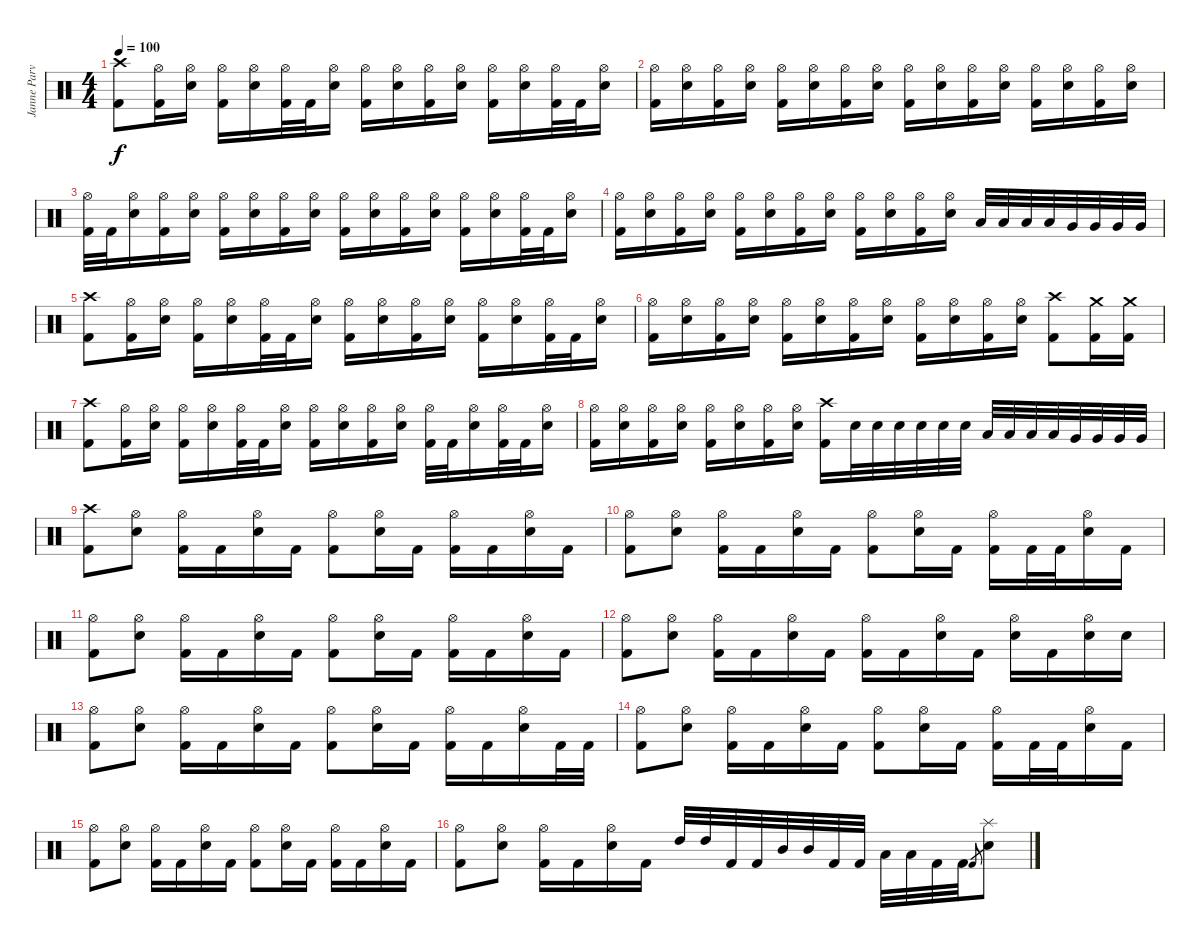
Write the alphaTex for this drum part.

\track ("Janne Parviainen" "Janne Parv") {instrument percussion}
\staff {score}
\articulation defaults
\ts (4 4)
\tempo 100
\clef neutral
\ks c
("Crash high (hit)" "Kick (hit) 2").8{dy f volume 13} ("Hi-Hat (open)" "Kick (hit) 2").16 ("Hi-Hat (open)" "Electric Snare (hit)").16 ("Hi-Hat (open)" "Kick (hit) 2").16 ("Hi-Hat (open)" "Electric Snare (hit)").16 ("Hi-Hat (open)" "Kick (hit) 2").32 "Kick (hit) 2".32 ("Hi-Hat (open)" "Electric Snare (hit)").16 ("Hi-Hat (open)" "Kick (hit) 2").16 ("Hi-Hat (open)" "Electric Snare (hit)").16 ("Hi-Hat (open)" "Kick (hit) 2").16 ("Hi-Hat (open)" "Electric Snare (hit)").16 ("Hi-Hat (open)" "Kick (hit) 2").16 ("Hi-Hat (open)" "Electric Snare (hit)").16 ("Hi-Hat (open)" "Kick (hit) 2").32 "Kick (hit) 2".32 ("Hi-Hat (open)" "Electric Snare (hit)").16 |
("Hi-Hat (open)" "Kick (hit) 2").16 ("Hi-Hat (open)" "Electric Snare (hit)").16 ("Hi-Hat (open)" "Kick (hit) 2").16 ("Hi-Hat (open)" "Electric Snare (hit)").16 ("Hi-Hat (open)" "Kick (hit) 2").16 ("Hi-Hat (open)" "Electric Snare (hit)").16 ("Hi-Hat (open)" "Kick (hit) 2").16 ("Hi-Hat (open)" "Electric Snare (hit)").16 ("Hi-Hat (open)" "Kick (hit) 2").16 ("Hi-Hat (open)" "Electric Snare (hit)").16 ("Hi-Hat (open)" "Kick (hit) 2").16 ("Hi-Hat (open)" "Electric Snare (hit)").16 ("Hi-Hat (open)" "Kick (hit) 2").16 ("Hi-Hat (open)" "Electric Snare (hit)").16 ("Hi-Hat (open)" "Kick (hit) 2").16 ("Hi-Hat (open)" "Electric Snare (hit)").16 |
("Hi-Hat (open)" "Kick (hit) 2").32 "Kick (hit) 2".32 ("Hi-Hat (open)" "Electric Snare (hit)").16 ("Hi-Hat (open)" "Kick (hit) 2").16 ("Hi-Hat (open)" "Electric Snare (hit)").16 ("Hi-Hat (open)" "Kick (hit) 2").16 ("Hi-Hat (open)" "Electric Snare (hit)").16 ("Hi-Hat (open)" "Kick (hit) 2").16 ("Hi-Hat (open)" "Electric Snare (hit)").16 ("Hi-Hat (open)" "Kick (hit) 2").16 ("Hi-Hat (open)" "Electric Snare (hit)").16 ("Hi-Hat (open)" "Kick (hit) 2").16 ("Hi-Hat (open)" "Electric Snare (hit)").16 ("Hi-Hat (open)" "Kick (hit) 2").16 ("Hi-Hat (open)" "Electric Snare (hit)").16 ("Hi-Hat (open)" "Kick (hit) 2").32 "Kick (hit) 2".32 ("Hi-Hat (open)" "Electric Snare (hit)").16 |
("Hi-Hat (open)" "Kick (hit) 2").16 ("Hi-Hat (open)" "Electric Snare (hit)").16 ("Hi-Hat (open)" "Kick (hit) 2").16 ("Hi-Hat (open)" "Electric Snare (hit)").16 ("Hi-Hat (open)" "Kick (hit) 2").16 ("Hi-Hat (open)" "Electric Snare (hit)").16 ("Hi-Hat (open)" "Kick (hit) 2").16 ("Hi-Hat (open)" "Electric Snare (hit)").16 ("Hi-Hat (open)" "Kick (hit) 2").16 ("Hi-Hat (open)" "Electric Snare (hit)").16 ("Hi-Hat (open)" "Kick (hit) 2").16 ("Hi-Hat (open)" "Electric Snare (hit)").16 "Low Tom (hit)".32 "Low Tom (hit)".32 "Low Tom (hit)".32 "Low Tom (hit)".32 "Very Low Tom (hit)".32 "Very Low Tom (hit)".32 "Very Low Tom (hit)".32 "Very Low Tom (hit)".32 |
("Crash high (hit)" "Kick (hit) 2").8 ("Hi-Hat (open)" "Kick (hit) 2").16 ("Hi-Hat (open)" "Electric Snare (hit)").16 ("Hi-Hat (open)" "Kick (hit) 2").16 ("Hi-Hat (open)" "Electric Snare (hit)").16 ("Hi-Hat (open)" "Kick (hit) 2").32 "Kick (hit) 2".32 ("Hi-Hat (open)" "Electric Snare (hit)").16 ("Hi-Hat (open)" "Kick (hit) 2").16 ("Hi-Hat (open)" "Electric Snare (hit)").16 ("Hi-Hat (open)" "Kick (hit) 2").16 ("Hi-Hat (open)" "Electric Snare (hit)").16 ("Hi-Hat (open)" "Kick (hit) 2").16 ("Hi-Hat (open)" "Electric Snare (hit)").16 ("Hi-Hat (open)" "Kick (hit) 2").32 "Kick (hit) 2".32 ("Hi-Hat (open)" "Electric Snare (hit)").16 |
("Hi-Hat (open)" "Kick (hit) 2").16 ("Hi-Hat (open)" "Electric Snare (hit)").16 ("Hi-Hat (open)" "Kick (hit) 2").16 ("Hi-Hat (open)" "Electric Snare (hit)").16 ("Hi-Hat (open)" "Kick (hit) 2").16 ("Hi-Hat (open)" "Electric Snare (hit)").16 ("Hi-Hat (open)" "Kick (hit) 2").16 ("Hi-Hat (open)" "Electric Snare (hit)").16 ("Hi-Hat (open)" "Kick (hit) 2").16 ("Hi-Hat (open)" "Electric Snare (hit)").16 ("Hi-Hat (open)" "Kick (hit) 2").16 ("Hi-Hat (open)" "Electric Snare (hit)").16 ("Crash high (hit)" "Kick (hit) 2").8 ("Crash medium (hit)" "Kick (hit) 2").16 ("Crash medium (hit)" "Kick (hit) 2").16 |
("Crash high (hit)" "Kick (hit) 2").8 ("Hi-Hat (open)" "Kick (hit) 2").16 ("Hi-Hat (open)" "Electric Snare (hit)").16 ("Hi-Hat (open)" "Kick (hit) 2").16 ("Hi-Hat (open)" "Electric Snare (hit)").16 ("Hi-Hat (open)" "Kick (hit) 2").32 "Kick (hit) 2".32 ("Hi-Hat (open)" "Electric Snare (hit)").16 ("Hi-Hat (open)" "Kick (hit) 2").16 ("Hi-Hat (open)" "Electric Snare (hit)").16 ("Hi-Hat (open)" "Kick (hit) 2").16 ("Hi-Hat (open)" "Electric Snare (hit)").16 ("Hi-Hat (open)" "Kick (hit) 2").32 "Kick (hit) 2".32 ("Hi-Hat (open)" "Electric Snare (hit)").16 ("Hi-Hat (open)" "Kick (hit) 2").32 "Kick (hit) 2".32 ("Hi-Hat (open)" "Electric Snare (hit)").16 |
("Hi-Hat (open)" "Kick (hit) 2").16 ("Hi-Hat (open)" "Electric Snare (hit)").16 ("Hi-Hat (open)" "Kick (hit) 2").16 ("Hi-Hat (open)" "Electric Snare (hit)").16 ("Hi-Hat (open)" "Kick (hit) 2").16 ("Hi-Hat (open)" "Electric Snare (hit)").16 ("Hi-Hat (open)" "Kick (hit) 2").16 ("Hi-Hat (open)" "Electric Snare (hit)").16 ("Crash high (hit)" "Kick (hit) 2").16 "Electric Snare (hit)".32 "Electric Snare (hit)".32 "Electric Snare (hit)".32 "Electric Snare (hit)".32 "Electric Snare (hit)".32 "Electric Snare (hit)".32 "Low Tom (hit)".32 "Low Tom (hit)".32 "Low Tom (hit)".32 "Low Tom (hit)".32 "Very Low Tom (hit)".32 "Very Low Tom (hit)".32 "Very Low Tom (hit)".32 "Very Low Tom (hit)".32 |
("Crash high (hit)" "Kick (hit) 2").8 ("Hi-Hat (open)" "Electric Snare (hit)").8 ("Hi-Hat (open)" "Kick (hit) 2").16 "Kick (hit) 2".16 ("Hi-Hat (open)" "Electric Snare (hit)").16 "Kick (hit) 2".16 ("Hi-Hat (open)" "Kick (hit) 2").8 ("Hi-Hat (open)" "Electric Snare (hit)").16 "Kick (hit) 2".16 ("Hi-Hat (open)" "Kick (hit) 2").16 "Kick (hit) 2".16 ("Hi-Hat (open)" "Electric Snare (hit)").16 "Kick (hit) 2".16 |
("Hi-Hat (open)" "Kick (hit) 2").8 ("Hi-Hat (open)" "Electric Snare (hit)").8 ("Hi-Hat (open)" "Kick (hit) 2").16 "Kick (hit) 2".16 ("Hi-Hat (open)" "Electric Snare (hit)").16 "Kick (hit) 2".16 ("Hi-Hat (open)" "Kick (hit) 2").8 ("Hi-Hat (open)" "Electric Snare (hit)").16 "Kick (hit) 2".16 ("Hi-Hat (open)" "Kick (hit) 2").16 "Kick (hit) 2".32 "Kick (hit) 2".32 ("Hi-Hat (open)" "Electric Snare (hit)").16 "Kick (hit) 2".16 |
("Hi-Hat (open)" "Kick (hit) 2").8 ("Hi-Hat (open)" "Electric Snare (hit)").8 ("Hi-Hat (open)" "Kick (hit) 2").16 "Kick (hit) 2".16 ("Hi-Hat (open)" "Electric Snare (hit)").16 "Kick (hit) 2".16 ("Hi-Hat (open)" "Kick (hit) 2").8 ("Hi-Hat (open)" "Electric Snare (hit)").16 "Kick (hit) 2".16 ("Hi-Hat (open)" "Kick (hit) 2").16 "Kick (hit) 2".16 ("Hi-Hat (open)" "Electric Snare (hit)").16 "Kick (hit) 2".16 |
("Hi-Hat (open)" "Kick (hit) 2").8 ("Hi-Hat (open)" "Electric Snare (hit)").8 ("Hi-Hat (open)" "Kick (hit) 2").16 "Kick (hit) 2".16 ("Hi-Hat (open)" "Electric Snare (hit)").16 "Kick (hit) 2".16 ("Hi-Hat (open)" "Kick (hit) 2").16 "Kick (hit) 2".16 ("Hi-Hat (open)" "Electric Snare (hit)").16 "Kick (hit) 2".16 ("Hi-Hat (open)" "Electric Snare (hit)").16 "Kick (hit) 2".16 ("Hi-Hat (open)" "Electric Snare (hit)").16 "Electric Snare (hit)".16 |
("Hi-Hat (open)" "Kick (hit) 2").8 ("Hi-Hat (open)" "Electric Snare (hit)").8 ("Hi-Hat (open)" "Kick (hit) 2").16 "Kick (hit) 2".16 ("Hi-Hat (open)" "Electric Snare (hit)").16 "Kick (hit) 2".16 ("Hi-Hat (open)" "Kick (hit) 2").8 ("Hi-Hat (open)" "Electric Snare (hit)").16 "Kick (hit) 2".16 ("Hi-Hat (open)" "Kick (hit) 2").16 "Kick (hit) 2".16 ("Hi-Hat (open)" "Electric Snare (hit)").16 "Kick (hit) 2".32 "Kick (hit) 2".32 |
("Hi-Hat (open)" "Kick (hit) 2").8 ("Hi-Hat (open)" "Electric Snare (hit)").8 ("Hi-Hat (open)" "Kick (hit) 2").16 "Kick (hit) 2".16 ("Hi-Hat (open)" "Electric Snare (hit)").16 "Kick (hit) 2".16 ("Hi-Hat (open)" "Kick (hit) 2").8 ("Hi-Hat (open)" "Electric Snare (hit)").16 "Kick (hit) 2".16 ("Hi-Hat (open)" "Kick (hit) 2").16 "Kick (hit) 2".32 "Kick (hit) 2".32 ("Hi-Hat (open)" "Electric Snare (hit)").16 "Kick (hit) 2".16 |
("Hi-Hat (open)" "Kick (hit) 2").8 ("Hi-Hat (open)" "Electric Snare (hit)").8 ("Hi-Hat (open)" "Kick (hit) 2").16 "Kick (hit) 2".16 ("Hi-Hat (open)" "Electric Snare (hit)").16 "Kick (hit) 2".16 ("Hi-Hat (open)" "Kick (hit) 2").8 ("Hi-Hat (open)" "Electric Snare (hit)").16 "Kick (hit) 2".16 ("Hi-Hat (open)" "Kick (hit) 2").16 "Kick (hit) 2".16 ("Hi-Hat (open)" "Electric Snare (hit)").16 "Kick (hit) 2".16 |
("Hi-Hat (open)" "Kick (hit) 2").8 ("Hi-Hat (open)" "Electric Snare (hit)").8 ("Hi-Hat (open)" "Kick (hit) 2").16 "Kick (hit) 2".16 ("Hi-Hat (open)" "Electric Snare (hit)").16 "Kick (hit) 2".16 "High Tom (hit)".32 "High Tom (hit)".32 "Kick (hit) 2".32 "Kick (hit) 2".32 "Mid Tom (hit)".32 "Mid Tom (hit)".32 "Kick (hit) 2".32 "Kick (hit) 2".32 "Low Tom (hit)".32 "Low Tom (hit)".32 "Kick (hit) 2".32 "Kick (hit) 2".32 "Kick (hit) 2".8{gr} ("Splash (hit)" "Electric Snare (hit)").8
